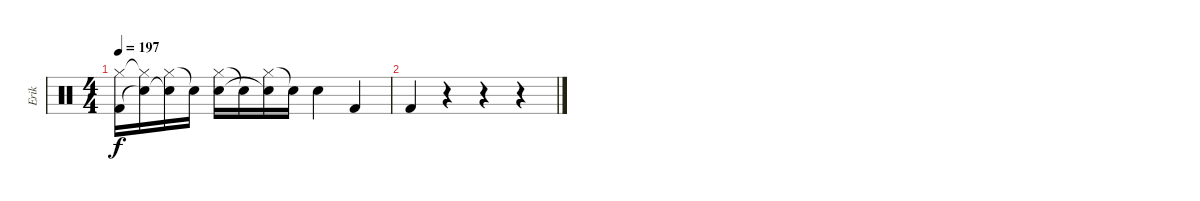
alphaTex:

\track ("Erik" "Erik") {instrument percussion}
\staff {score}
\articulation defaults
\ts (4 4)
\tempo 197
\clef neutral
\ks c
("Hi-Hat (closed)" "Kick (hit) 2").16{dy f} ("Hi-Hat (closed)"{t} "Electric Snare (hit)"{t}).16 ("Hi-Hat (closed)" "Snare (hit)"{t}).16 "Snare (hit)"{t}.16 ("Hi-Hat (closed)" "Electric Snare (hit)").16 "Snare (hit)"{t}.16 ("Hi-Hat (closed)" "Snare (hit)"{t}).16 "Snare (hit)"{t}.16 "Electric Snare (hit)".4 "Kick (hit) 2".4 |
"Kick (hit) 2".4 r.4 r.4 r.4
